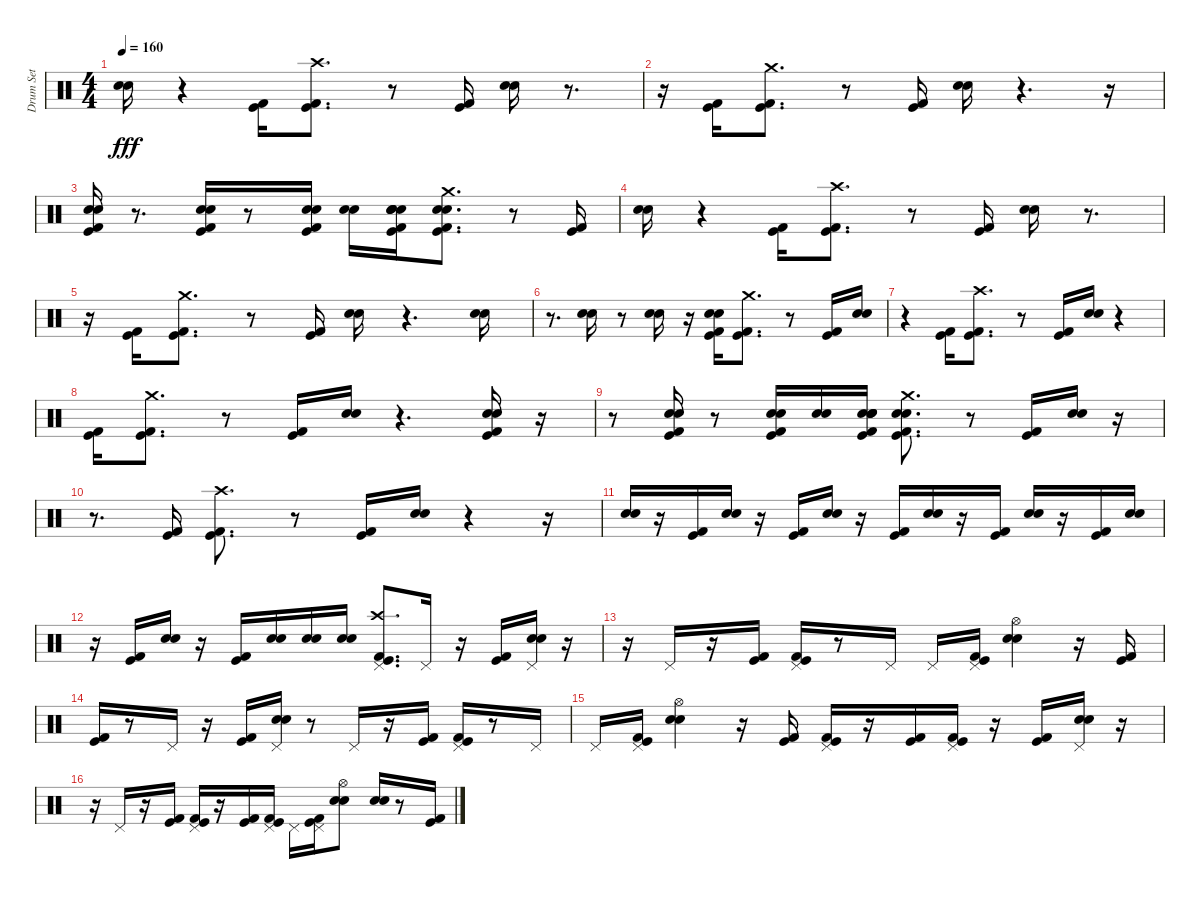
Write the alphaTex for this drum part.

\track ("Drum Set" "Drum Set") {instrument percussion}
\staff {score}
\articulation defaults
\ts (4 4)
\tempo 160
\clef neutral
\ks c
("Electric Snare (hit)" "Snare (hit) 2").16{dy fff} r.4 ("Kick (hit) 2" "Kick (hit)").16 ("Kick (hit)" "Kick (hit) 2" "Crash high (hit)").8{d} r.8 ("Kick (hit)" "Kick (hit) 2").16 ("Snare (hit) 2" "Electric Snare (hit)").16 r.8{d} |
r.16 ("Kick (hit) 2" "Kick (hit)").16 ("Kick (hit)" "Kick (hit) 2" "Crash medium (hit)").8{d} r.8 ("Kick (hit) 2" "Kick (hit)").16 ("Snare (hit) 2" "Electric Snare (hit)").16 r.4{d} r.16 |
("Kick (hit) 2" "Kick (hit)" "Snare (hit) 2" "Electric Snare (hit)").16 r.8{d} ("Kick (hit)" "Kick (hit) 2" "Snare (hit) 2" "Electric Snare (hit)").16 r.8 ("Kick (hit)" "Kick (hit) 2" "Snare (hit) 2" "Electric Snare (hit)").16 ("Snare (hit) 2" "Electric Snare (hit)").16 ("Kick (hit) 2" "Snare (hit) 2" "Electric Snare (hit)" "Kick (hit)" "Snare (hit) 2" "Electric Snare (hit)").16 ("Snare (hit) 2" "Electric Snare (hit)" "Kick (hit) 2" "Kick (hit)" "Crash medium (hit)").8{d} r.8 ("Kick (hit) 2" "Kick (hit)").16 |
("Electric Snare (hit)" "Snare (hit) 2").16 r.4 ("Kick (hit) 2" "Kick (hit)").16 ("Kick (hit)" "Kick (hit) 2" "Crash high (hit)").8{d} r.8 ("Kick (hit)" "Kick (hit) 2").16 ("Snare (hit) 2" "Electric Snare (hit)").16 r.8{d} |
r.16 ("Kick (hit) 2" "Kick (hit)").16 ("Kick (hit)" "Kick (hit) 2" "Crash medium (hit)").8{d} r.8 ("Kick (hit) 2" "Kick (hit)").16 ("Snare (hit) 2" "Electric Snare (hit)").16 r.4{d} ("Snare (hit) 2" "Electric Snare (hit)").16 |
r.8{d} ("Electric Snare (hit)" "Snare (hit) 2").16 r.8 ("Electric Snare (hit)" "Snare (hit) 2").16 r.16 ("Electric Snare (hit)" "Snare (hit) 2" "Kick (hit) 2" "Kick (hit)").16 ("Kick (hit) 2" "Kick (hit)" "Crash medium (hit)").8{d} r.8 ("Kick (hit) 2" "Kick (hit)").16 ("Electric Snare (hit)" "Snare (hit) 2").16 |
r.4 ("Kick (hit) 2" "Kick (hit)").16 ("Kick (hit)" "Kick (hit) 2" "Crash high (hit)").8{d} r.8 ("Kick (hit)" "Kick (hit) 2").16 ("Snare (hit) 2" "Electric Snare (hit)").16 r.4 |
("Kick (hit) 2" "Kick (hit)").16 ("Kick (hit)" "Kick (hit) 2" "Crash medium (hit)").8{d} r.8 ("Kick (hit) 2" "Kick (hit)").16 ("Snare (hit) 2" "Electric Snare (hit)").16 r.4{d} ("Kick (hit) 2" "Kick (hit)" "Snare (hit) 2" "Electric Snare (hit)").16 r.16 |
r.8 ("Kick (hit)" "Kick (hit) 2" "Snare (hit) 2" "Electric Snare (hit)").16 r.8 ("Kick (hit)" "Kick (hit) 2" "Snare (hit) 2" "Electric Snare (hit)").16 ("Electric Snare (hit)" "Snare (hit) 2").16 ("Kick (hit)" "Snare (hit) 2" "Kick (hit) 2" "Electric Snare (hit)" "Snare (hit) 2" "Electric Snare (hit)").16 ("Snare (hit) 2" "Electric Snare (hit)" "Kick (hit) 2" "Kick (hit)" "Crash medium (hit)").8{d} r.8 ("Kick (hit) 2" "Kick (hit)").16 ("Electric Snare (hit)" "Snare (hit) 2").16 r.16 |
r.8{d} ("Kick (hit) 2" "Kick (hit)").16 ("Kick (hit)" "Kick (hit) 2" "Crash high (hit)").8{d} r.8 ("Kick (hit)" "Kick (hit) 2").16 ("Snare (hit) 2" "Electric Snare (hit)").16 r.4 r.16 |
("Electric Snare (hit)" "Snare (hit) 2").16 r.16 ("Kick (hit) 2" "Kick (hit)").16 ("Snare (hit) 2" "Electric Snare (hit)").16 r.16 ("Kick (hit)" "Kick (hit) 2").16 ("Snare (hit) 2" "Electric Snare (hit)").16 r.16 ("Kick (hit) 2" "Kick (hit)").16 ("Snare (hit) 2" "Electric Snare (hit)").16 r.16 ("Kick (hit) 2" "Kick (hit)").16 ("Snare (hit) 2" "Electric Snare (hit)").16 r.16 ("Kick (hit) 2" "Kick (hit)").16 ("Snare (hit) 2" "Electric Snare (hit)").16 |
r.16 ("Kick (hit)" "Kick (hit) 2").16 ("Snare (hit) 2" "Electric Snare (hit)").16 r.16 ("Kick (hit)" "Kick (hit) 2").16 ("Snare (hit) 2" "Electric Snare (hit)").16 ("Snare (hit) 2" "Electric Snare (hit)").16 ("Snare (hit) 2" "Electric Snare (hit)").16 ("Crash high (hit)" "Kick (hit) 2" "Kick (hit)" "Pedal Hi-Hat (hit)").8{d} "Pedal Hi-Hat (hit)".16 r.16 ("Kick (hit) 2" "Kick (hit)").16 ("Electric Snare (hit)" "Snare (hit) 2" "Pedal Hi-Hat (hit)").16 r.16 |
r.16 "Pedal Hi-Hat (hit)".16 r.16 ("Kick (hit)" "Kick (hit) 2").16 ("Pedal Hi-Hat (hit)" "Kick (hit)" "Kick (hit) 2").16 r.8 "Pedal Hi-Hat (hit)".16 "Pedal Hi-Hat (hit)".16 ("Pedal Hi-Hat (hit)" "Kick (hit)" "Kick (hit) 2").16 ("Hi-Hat (open)" "Electric Snare (hit)" "Snare (hit) 2").4 r.16 ("Kick (hit)" "Kick (hit) 2").16 |
("Kick (hit) 2" "Kick (hit)").16 r.8 "Pedal Hi-Hat (hit)".16 r.16 ("Kick (hit) 2" "Kick (hit)").16 ("Pedal Hi-Hat (hit)" "Electric Snare (hit)" "Snare (hit) 2").16 r.8 "Pedal Hi-Hat (hit)".16 r.16 ("Kick (hit)" "Kick (hit) 2").16 ("Pedal Hi-Hat (hit)" "Kick (hit)" "Kick (hit) 2").16 r.8 "Pedal Hi-Hat (hit)".16 |
"Pedal Hi-Hat (hit)".16 ("Pedal Hi-Hat (hit)" "Kick (hit)" "Kick (hit) 2").16 ("Hi-Hat (open)" "Electric Snare (hit)" "Snare (hit) 2").4 r.16 ("Kick (hit)" "Kick (hit) 2").16 ("Kick (hit)" "Kick (hit) 2" "Pedal Hi-Hat (hit)").16 r.16 ("Kick (hit)" "Kick (hit) 2").16 ("Kick (hit)" "Kick (hit) 2" "Pedal Hi-Hat (hit)").16 r.16 ("Kick (hit)" "Kick (hit) 2").16 ("Electric Snare (hit)" "Snare (hit) 2" "Pedal Hi-Hat (hit)").16 r.16 |
r.16 "Pedal Hi-Hat (hit)".16 r.16 ("Kick (hit)" "Kick (hit) 2").16 ("Kick (hit)" "Kick (hit) 2" "Pedal Hi-Hat (hit)").16 r.16 ("Kick (hit)" "Kick (hit) 2").16 ("Kick (hit) 2" "Kick (hit)" "Pedal Hi-Hat (hit)").16 "Pedal Hi-Hat (hit)".16 ("Kick (hit)" "Kick (hit) 2" "Pedal Hi-Hat (hit)").16 ("Snare (hit) 2" "Electric Snare (hit)" "Hi-Hat (open)").8 ("Electric Snare (hit)" "Snare (hit) 2").16 r.8 ("Kick (hit)" "Kick (hit) 2").16
